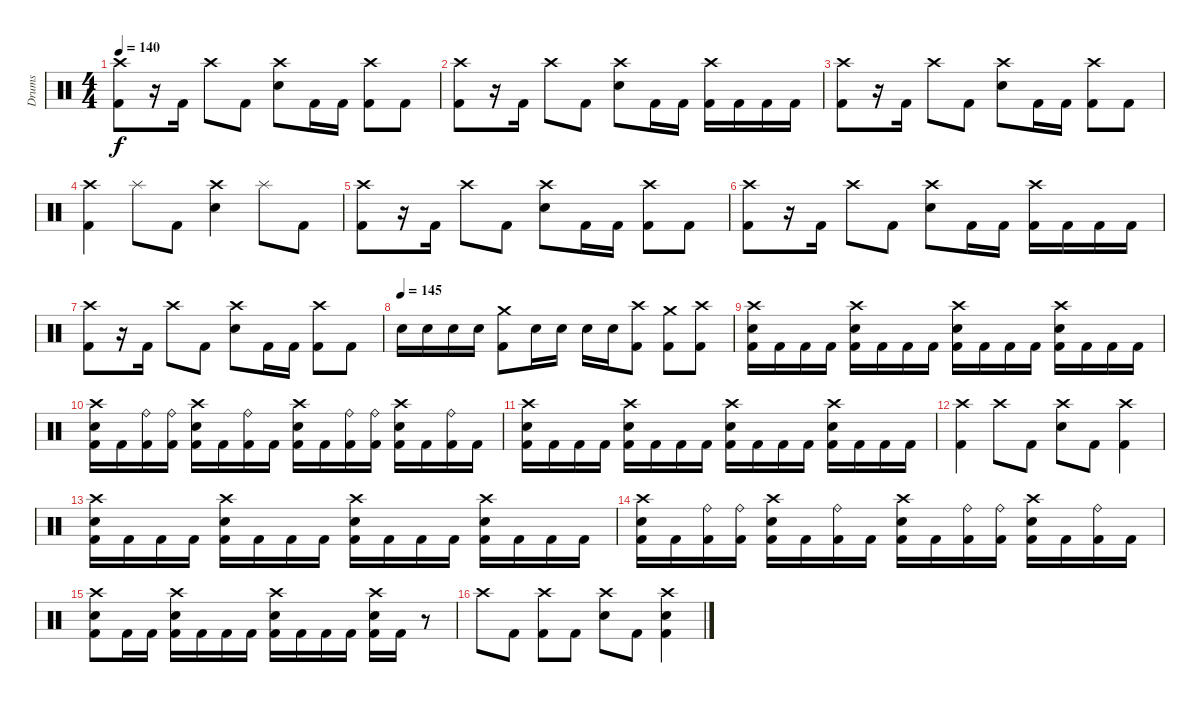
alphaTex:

\track ("Drums" "Drums") {instrument percussion}
\staff {score}
\articulation defaults
\ts (4 4)
\tempo 140
\clef neutral
\ks c
("Crash high (hit)" "Kick (hit) 2").8{dy f} r.16 "Kick (hit) 2".16 "Crash high (hit)".8 "Kick (hit) 2".8 ("Crash high (hit)" "Electric Snare (hit)").8 "Kick (hit) 2".16 "Kick (hit) 2".16 ("Crash high (hit)" "Kick (hit) 2").8 "Kick (hit) 2".8 |
("Crash high (hit)" "Kick (hit) 2").8 r.16 "Kick (hit) 2".16 "Crash high (hit)".8 "Kick (hit) 2".8 ("Crash high (hit)" "Electric Snare (hit)").8 "Kick (hit) 2".16 "Kick (hit) 2".16 ("Crash high (hit)" "Kick (hit) 2").16 "Kick (hit) 2".16 "Kick (hit) 2".16 "Kick (hit) 2".16 |
("Crash high (hit)" "Kick (hit) 2").8 r.16 "Kick (hit) 2".16 "Crash high (hit)".8 "Kick (hit) 2".8 ("Crash high (hit)" "Electric Snare (hit)").8 "Kick (hit) 2".16 "Kick (hit) 2".16 ("Crash high (hit)" "Kick (hit) 2").8 "Kick (hit) 2".8 |
("Crash high (hit)" "Kick (hit) 2").4 "Splash (hit)".8 "Kick (hit) 2".8 ("Crash high (hit)" "Electric Snare (hit)").4 "Splash (hit)".8 "Kick (hit) 2".8 |
("Crash high (hit)" "Kick (hit) 2").8 r.16 "Kick (hit) 2".16 "Crash high (hit)".8 "Kick (hit) 2".8 ("Crash high (hit)" "Electric Snare (hit)").8 "Kick (hit) 2".16 "Kick (hit) 2".16 ("Crash high (hit)" "Kick (hit) 2").8 "Kick (hit) 2".8 |
("Crash high (hit)" "Kick (hit) 2").8 r.16 "Kick (hit) 2".16 "Crash high (hit)".8 "Kick (hit) 2".8 ("Crash high (hit)" "Electric Snare (hit)").8 "Kick (hit) 2".16 "Kick (hit) 2".16 ("Crash high (hit)" "Kick (hit) 2").16 "Kick (hit) 2".16 "Kick (hit) 2".16 "Kick (hit) 2".16 |
("Crash high (hit)" "Kick (hit) 2").8 r.16 "Kick (hit) 2".16 "Crash high (hit)".8 "Kick (hit) 2".8 ("Crash high (hit)" "Electric Snare (hit)").8 "Kick (hit) 2".16 "Kick (hit) 2".16 ("Crash high (hit)" "Kick (hit) 2").8 "Kick (hit) 2".8 |
\tempo (145)
"Electric Snare (hit)".16 "Electric Snare (hit)".16 "Electric Snare (hit)".16 "Electric Snare (hit)".16 ("Crash medium (hit)" "Kick (hit) 2").8 "Electric Snare (hit)".16 "Electric Snare (hit)".16 "Electric Snare (hit)".16 "Electric Snare (hit)".16 ("Crash high (hit)" "Kick (hit) 2").8 ("Crash medium (hit)" "Kick (hit) 2").8 ("Crash high (hit)" "Kick (hit) 2").8 |
("Crash high (hit)" "Electric Snare (hit)" "Kick (hit) 2").16 "Kick (hit) 2".16 "Kick (hit) 2".16 "Kick (hit) 2".16 ("Crash high (hit)" "Electric Snare (hit)" "Kick (hit) 2").16 "Kick (hit) 2".16 "Kick (hit) 2".16 "Kick (hit) 2".16 ("Crash high (hit)" "Electric Snare (hit)" "Kick (hit) 2").16 "Kick (hit) 2".16 "Kick (hit) 2".16 "Kick (hit) 2".16 ("Crash high (hit)" "Electric Snare (hit)" "Kick (hit) 2").16 "Kick (hit) 2".16 "Kick (hit) 2".16 "Kick (hit) 2".16 |
("Crash high (hit)" "Electric Snare (hit)" "Kick (hit) 2").16 "Kick (hit) 2".16 ("Ride (bell)" "Kick (hit) 2").16 ("Ride (bell)" "Kick (hit) 2").16 ("Crash high (hit)" "Electric Snare (hit)" "Kick (hit) 2").16 "Kick (hit) 2".16 ("Ride (bell)" "Kick (hit) 2").16 "Kick (hit) 2".16 ("Crash high (hit)" "Electric Snare (hit)" "Kick (hit) 2").16 "Kick (hit) 2".16 ("Ride (bell)" "Kick (hit) 2").16 ("Ride (bell)" "Kick (hit) 2").16 ("Crash high (hit)" "Electric Snare (hit)" "Kick (hit) 2").16 "Kick (hit) 2".16 ("Ride (bell)" "Kick (hit) 2").16 "Kick (hit) 2".16 |
("Crash high (hit)" "Electric Snare (hit)" "Kick (hit) 2").16 "Kick (hit) 2".16 "Kick (hit) 2".16 "Kick (hit) 2".16 ("Crash high (hit)" "Electric Snare (hit)" "Kick (hit) 2").16 "Kick (hit) 2".16 "Kick (hit) 2".16 "Kick (hit) 2".16 ("Crash high (hit)" "Electric Snare (hit)" "Kick (hit) 2").16 "Kick (hit) 2".16 "Kick (hit) 2".16 "Kick (hit) 2".16 ("Crash high (hit)" "Electric Snare (hit)" "Kick (hit) 2").16 "Kick (hit) 2".16 "Kick (hit) 2".16 "Kick (hit) 2".16 |
("Crash high (hit)" "Kick (hit) 2").4 "Crash high (hit)".8 "Kick (hit) 2".8 ("Crash high (hit)" "Electric Snare (hit)").8 "Kick (hit) 2".8 ("Crash high (hit)" "Kick (hit) 2").4 |
("Crash high (hit)" "Electric Snare (hit)" "Kick (hit) 2").16 "Kick (hit) 2".16 "Kick (hit) 2".16 "Kick (hit) 2".16 ("Crash high (hit)" "Electric Snare (hit)" "Kick (hit) 2").16 "Kick (hit) 2".16 "Kick (hit) 2".16 "Kick (hit) 2".16 ("Crash high (hit)" "Electric Snare (hit)" "Kick (hit) 2").16 "Kick (hit) 2".16 "Kick (hit) 2".16 "Kick (hit) 2".16 ("Crash high (hit)" "Electric Snare (hit)" "Kick (hit) 2").16 "Kick (hit) 2".16 "Kick (hit) 2".16 "Kick (hit) 2".16 |
("Crash high (hit)" "Electric Snare (hit)" "Kick (hit) 2").16 "Kick (hit) 2".16 ("Ride (bell)" "Kick (hit) 2").16 ("Ride (bell)" "Kick (hit) 2").16 ("Crash high (hit)" "Electric Snare (hit)" "Kick (hit) 2").16 "Kick (hit) 2".16 ("Ride (bell)" "Kick (hit) 2").16 "Kick (hit) 2".16 ("Crash high (hit)" "Electric Snare (hit)" "Kick (hit) 2").16 "Kick (hit) 2".16 ("Ride (bell)" "Kick (hit) 2").16 ("Ride (bell)" "Kick (hit) 2").16 ("Crash high (hit)" "Electric Snare (hit)" "Kick (hit) 2").16 "Kick (hit) 2".16 ("Ride (bell)" "Kick (hit) 2").16 "Kick (hit) 2".16 |
("Crash high (hit)" "Electric Snare (hit)" "Kick (hit) 2").8 "Kick (hit) 2".16 "Kick (hit) 2".16 ("Crash high (hit)" "Electric Snare (hit)" "Kick (hit) 2").16 "Kick (hit) 2".16 "Kick (hit) 2".16 "Kick (hit) 2".16 ("Crash high (hit)" "Electric Snare (hit)" "Kick (hit) 2").16 "Kick (hit) 2".16 "Kick (hit) 2".16 "Kick (hit) 2".16 ("Crash high (hit)" "Electric Snare (hit)" "Kick (hit) 2").16 "Kick (hit) 2".16 r.8 |
"Crash high (hit)".8 "Kick (hit) 2".8 ("Crash high (hit)" "Kick (hit) 2").8 "Kick (hit) 2".8 ("Crash high (hit)" "Electric Snare (hit)").8 "Kick (hit) 2".8 ("Crash high (hit)" "Electric Snare (hit)" "Kick (hit) 2").4
